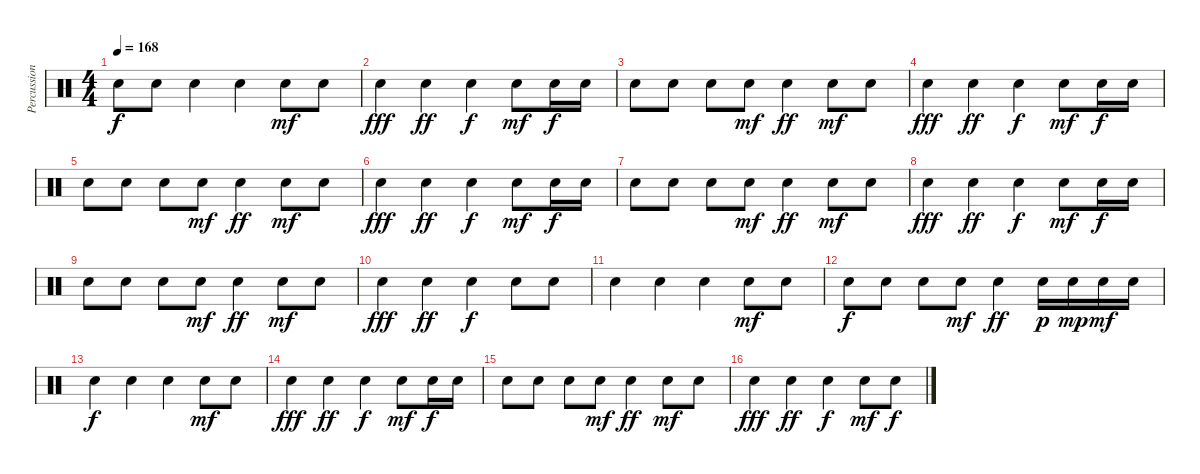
\track ("Percussion" "Percussion") {instrument percussion}
\staff {score}
\articulation defaults
\ts (4 4)
\tempo 168
\clef neutral
\ks c "Snare (hit) 2".8{dy f} "Snare (hit) 2".8 "Snare (hit) 2".4 "Snare (hit) 2".4 "Snare (hit) 2".8{dy mf} "Snare (hit) 2".8
|
"Snare (hit) 2".4{dy fff} "Snare (hit) 2".4{dy ff} "Snare (hit) 2".4{dy f} "Snare (hit) 2".8{dy mf} "Snare (hit) 2".16{dy f} "Snare (hit) 2".16 |
"Snare (hit) 2".8 "Snare (hit) 2".8 "Snare (hit) 2".8 "Snare (hit) 2".8{dy mf} "Snare (hit) 2".4{dy ff} "Snare (hit) 2".8{dy mf} "Snare (hit) 2".8 |
"Snare (hit) 2".4{dy fff} "Snare (hit) 2".4{dy ff} "Snare (hit) 2".4{dy f} "Snare (hit) 2".8{dy mf} "Snare (hit) 2".16{dy f} "Snare (hit) 2".16 |
"Snare (hit) 2".8 "Snare (hit) 2".8 "Snare (hit) 2".8 "Snare (hit) 2".8{dy mf} "Snare (hit) 2".4{dy ff} "Snare (hit) 2".8{dy mf} "Snare (hit) 2".8 |
"Snare (hit) 2".4{dy fff} "Snare (hit) 2".4{dy ff} "Snare (hit) 2".4{dy f} "Snare (hit) 2".8{dy mf} "Snare (hit) 2".16{dy f} "Snare (hit) 2".16 |
"Snare (hit) 2".8 "Snare (hit) 2".8 "Snare (hit) 2".8 "Snare (hit) 2".8{dy mf} "Snare (hit) 2".4{dy ff} "Snare (hit) 2".8{dy mf} "Snare (hit) 2".8 |
"Snare (hit) 2".4{dy fff} "Snare (hit) 2".4{dy ff} "Snare (hit) 2".4{dy f} "Snare (hit) 2".8{dy mf} "Snare (hit) 2".16{dy f} "Snare (hit) 2".16 |
"Snare (hit) 2".8 "Snare (hit) 2".8 "Snare (hit) 2".8 "Snare (hit) 2".8{dy mf} "Snare (hit) 2".4{dy ff} "Snare (hit) 2".8{dy mf} "Snare (hit) 2".8 |
"Snare (hit) 2".4{dy fff} "Snare (hit) 2".4{dy ff} "Snare (hit) 2".4{dy f} "Snare (hit) 2".8 "Snare (hit) 2".8 |
"Snare (hit) 2".4 "Snare (hit) 2".4 "Snare (hit) 2".4 "Snare (hit) 2".8{dy mf} "Snare (hit) 2".8 |
"Snare (hit) 2".8{dy f} "Snare (hit) 2".8 "Snare (hit) 2".8 "Snare (hit) 2".8{dy mf} "Snare (hit) 2".4{dy ff} "Snare (hit) 2".16{dy p} "Snare (hit) 2".16{dy mp} "Snare (hit) 2".16{dy mf} "Snare (hit) 2".16 |
"Snare (hit) 2".4{dy f} "Snare (hit) 2".4 "Snare (hit) 2".4 "Snare (hit) 2".8{dy mf} "Snare (hit) 2".8 |
"Snare (hit) 2".4{dy fff} "Snare (hit) 2".4{dy ff} "Snare (hit) 2".4{dy f} "Snare (hit) 2".8{dy mf} "Snare (hit) 2".16{dy f} "Snare (hit) 2".16 |
"Snare (hit) 2".8 "Snare (hit) 2".8 "Snare (hit) 2".8 "Snare (hit) 2".8{dy mf} "Snare (hit) 2".4{dy ff} "Snare (hit) 2".8{dy mf} "Snare (hit) 2".8 |
"Snare (hit) 2".4{dy fff} "Snare (hit) 2".4{dy ff} "Snare (hit) 2".4{dy f} "Snare (hit) 2".8{dy mf} "Snare (hit) 2".8{dy f}
